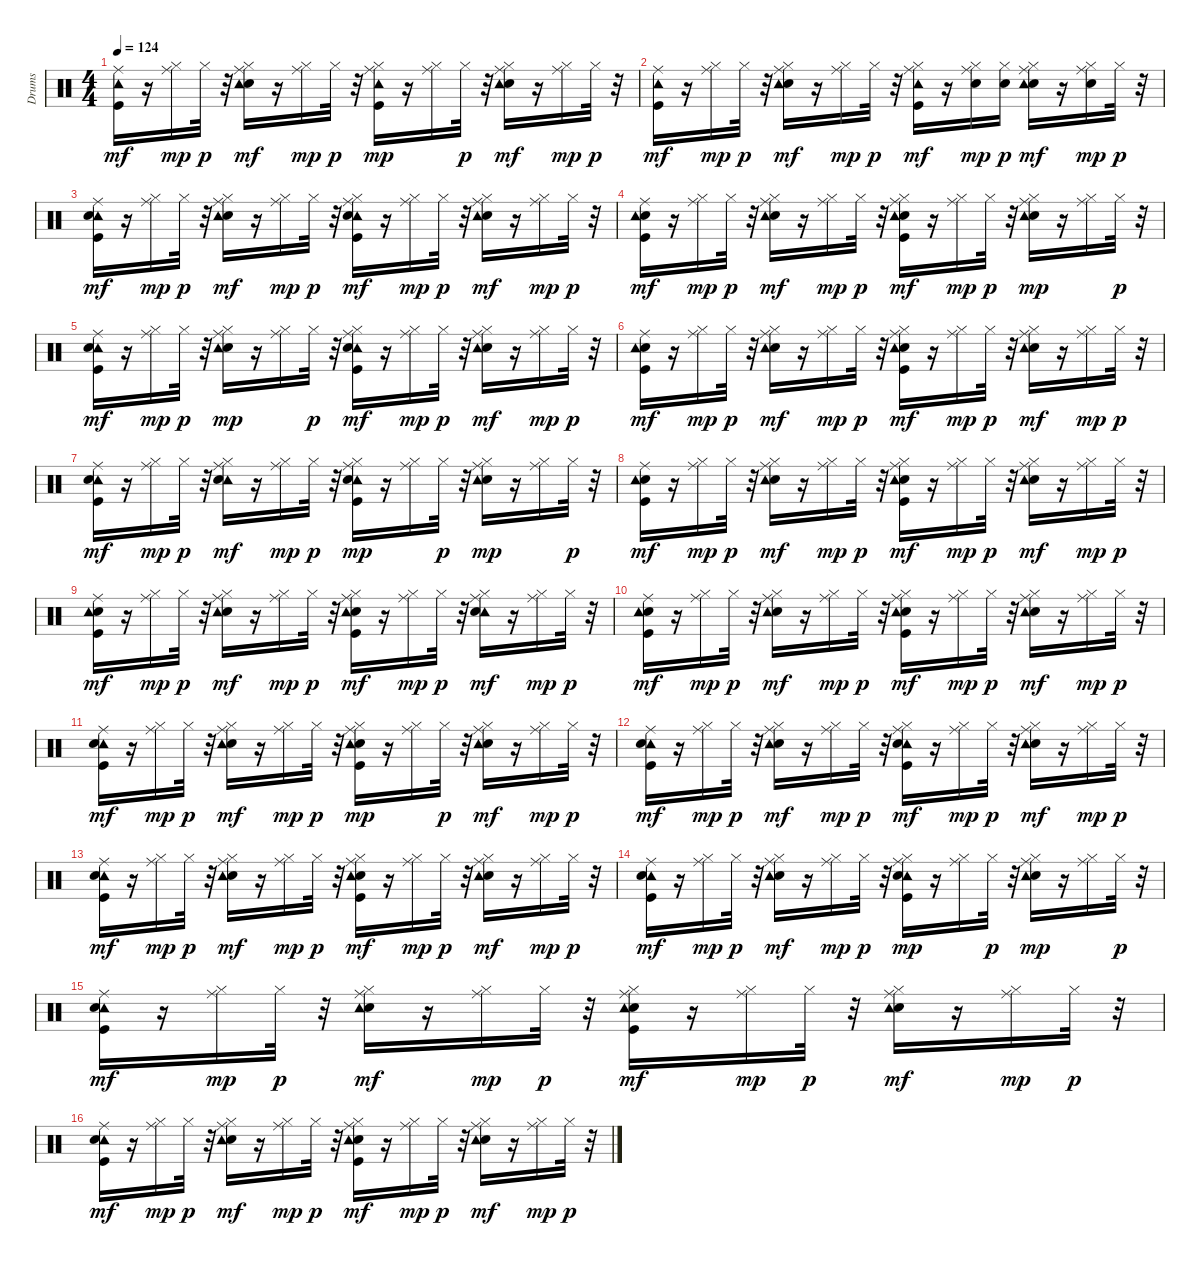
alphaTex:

\track ("Drums" "Drums") {instrument percussion}
\staff {score}
\articulation defaults
\ts (4 4)
\tempo 124
\clef neutral
\ks c
("Ride (middle)" "Tambourine (hit)" "Kick (hit)").16{dy mf} r.16 ("Ride (middle)" "Hi-Hat (closed)").16{dy mp} "Hi-Hat (closed)".32{dy p} r.32 ("Ride (middle)" "Snare (hit) 2" "Tambourine (hit)" "Hi-Hat (closed)").16{dy mf} r.16 ("Hi-Hat (closed)" "Ride (middle)").16{dy mp} "Hi-Hat (closed)".32{dy p} r.32 ("Hi-Hat (closed)" "Kick (hit)" "Tambourine (hit)" "Ride (middle)").16{dy mp} r.16 ("Ride (middle)" "Hi-Hat (closed)").16 "Hi-Hat (closed)".32{dy p} r.32 ("Ride (middle)" "Snare (hit) 2" "Tambourine (hit)" "Hi-Hat (closed)").16{dy mf} r.16 ("Hi-Hat (closed)" "Ride (middle)").16{dy mp} "Hi-Hat (closed)".32{dy p} r.32 |
("Ride (middle)" "Tambourine (hit)" "Kick (hit)").16{dy mf} r.16 ("Ride (middle)" "Hi-Hat (closed)").16{dy mp} "Hi-Hat (closed)".32{dy p} r.32 ("Ride (middle)" "Snare (hit) 2" "Tambourine (hit)" "Hi-Hat (closed)").16{dy mf} r.16 ("Hi-Hat (closed)" "Ride (middle)").16{dy mp} "Hi-Hat (closed)".32{dy p} r.32 ("Ride (middle)" "Kick (hit)" "Tambourine (hit)" "Hi-Hat (closed)").16{dy mf} r.16 ("Electric Snare (hit)" "Ride (middle)" "Hi-Hat (closed)").16{dy mp} ("Electric Snare (hit)" "Hi-Hat (closed)").16{dy p} ("Hi-Hat (closed)" "Ride (middle)" "Snare (hit) 2" "Tambourine (hit)").16{dy mf} r.16 ("Electric Snare (hit)" "Ride (middle)" "Hi-Hat (closed)").16{dy mp} "Hi-Hat (closed)".32{dy p} r.32 |
("Kick (hit)" "Ride (middle)" "Tambourine (hit)" "Snare (hit) 2").16{dy mf} r.16 ("Ride (middle)" "Hi-Hat (closed)").16{dy mp} "Hi-Hat (closed)".32{dy p} r.32 ("Snare (hit) 2" "Ride (middle)" "Tambourine (hit)" "Hi-Hat (closed)").16{dy mf} r.16 ("Ride (middle)" "Hi-Hat (closed)").16{dy mp} "Hi-Hat (closed)".32{dy p} r.32 ("Tambourine (hit)" "Ride (middle)" "Kick (hit)" "Snare (hit) 2" "Hi-Hat (closed)").16{dy mf} r.16 ("Hi-Hat (closed)" "Ride (middle)").16{dy mp} "Hi-Hat (closed)".32{dy p} r.32 ("Ride (middle)" "Snare (hit) 2" "Tambourine (hit)" "Hi-Hat (closed)").16{dy mf} r.16 ("Ride (middle)" "Hi-Hat (closed)").16{dy mp} "Hi-Hat (closed)".32{dy p} r.32 |
("Snare (hit) 2" "Ride (middle)" "Tambourine (hit)" "Kick (hit)").16{dy mf} r.16 ("Hi-Hat (closed)" "Ride (middle)").16{dy mp} "Hi-Hat (closed)".32{dy p} r.32 ("Ride (middle)" "Snare (hit) 2" "Tambourine (hit)" "Hi-Hat (closed)").16{dy mf} r.16 ("Ride (middle)" "Hi-Hat (closed)").16{dy mp} "Hi-Hat (closed)".32{dy p} r.32 ("Snare (hit) 2" "Hi-Hat (closed)" "Ride (middle)" "Kick (hit)" "Tambourine (hit)").16{dy mf} r.16 ("Ride (middle)" "Hi-Hat (closed)").16{dy mp} "Hi-Hat (closed)".32{dy p} r.32 ("Hi-Hat (closed)" "Snare (hit) 2" "Tambourine (hit)" "Ride (middle)").16{dy mp} r.16 ("Ride (middle)" "Hi-Hat (closed)").16 "Hi-Hat (closed)".32{dy p} r.32 |
("Tambourine (hit)" "Snare (hit) 2" "Ride (middle)" "Kick (hit)").16{dy mf} r.16 ("Ride (middle)" "Hi-Hat (closed)").16{dy mp} "Hi-Hat (closed)".32{dy p} r.32 ("Hi-Hat (closed)" "Snare (hit) 2" "Tambourine (hit)" "Ride (middle)").16{dy mp} r.16 ("Ride (middle)" "Hi-Hat (closed)").16 "Hi-Hat (closed)".32{dy p} r.32 ("Ride (middle)" "Hi-Hat (closed)" "Kick (hit)" "Tambourine (hit)" "Snare (hit) 2").16{dy mf} r.16 ("Ride (middle)" "Hi-Hat (closed)").16{dy mp} "Hi-Hat (closed)".32{dy p} r.32 ("Ride (middle)" "Snare (hit) 2" "Tambourine (hit)" "Hi-Hat (closed)").16{dy mf} r.16 ("Hi-Hat (closed)" "Ride (middle)").16{dy mp} "Hi-Hat (closed)".32{dy p} r.32 |
("Snare (hit) 2" "Ride (middle)" "Tambourine (hit)" "Kick (hit)").16{dy mf} r.16 ("Ride (middle)" "Hi-Hat (closed)").16{dy mp} "Hi-Hat (closed)".32{dy p} r.32 ("Ride (middle)" "Snare (hit) 2" "Tambourine (hit)" "Hi-Hat (closed)").16{dy mf} r.16 ("Hi-Hat (closed)" "Ride (middle)").16{dy mp} "Hi-Hat (closed)".32{dy p} r.32 ("Snare (hit) 2" "Ride (middle)" "Kick (hit)" "Tambourine (hit)" "Hi-Hat (closed)").16{dy mf} r.16 ("Ride (middle)" "Hi-Hat (closed)").16{dy mp} "Hi-Hat (closed)".32{dy p} r.32 ("Hi-Hat (closed)" "Ride (middle)" "Snare (hit) 2" "Tambourine (hit)").16{dy mf} r.16 ("Ride (middle)" "Hi-Hat (closed)").16{dy mp} "Hi-Hat (closed)".32{dy p} r.32 |
("Kick (hit)" "Ride (middle)" "Tambourine (hit)" "Snare (hit) 2").16{dy mf} r.16 ("Ride (middle)" "Hi-Hat (closed)").16{dy mp} "Hi-Hat (closed)".32{dy p} r.32 ("Tambourine (hit)" "Ride (middle)" "Snare (hit) 2" "Hi-Hat (closed)").16{dy mf} r.16 ("Ride (middle)" "Hi-Hat (closed)").16{dy mp} "Hi-Hat (closed)".32{dy p} r.32 ("Tambourine (hit)" "Hi-Hat (closed)" "Kick (hit)" "Snare (hit) 2" "Ride (middle)").16{dy mp} r.16 ("Ride (middle)" "Hi-Hat (closed)").16 "Hi-Hat (closed)".32{dy p} r.32 ("Hi-Hat (closed)" "Snare (hit) 2" "Tambourine (hit)" "Ride (middle)").16{dy mp} r.16 ("Ride (middle)" "Hi-Hat (closed)").16 "Hi-Hat (closed)".32{dy p} r.32 |
("Snare (hit) 2" "Ride (middle)" "Tambourine (hit)" "Kick (hit)").16{dy mf volume 16} r.16 ("Ride (middle)" "Hi-Hat (closed)").16{dy mp} "Hi-Hat (closed)".32{dy p} r.32 ("Snare (hit) 2" "Tambourine (hit)" "Ride (middle)" "Hi-Hat (closed)").16{dy mf} r.16 ("Ride (middle)" "Hi-Hat (closed)").16{dy mp} "Hi-Hat (closed)".32{dy p} r.32 ("Snare (hit) 2" "Ride (middle)" "Hi-Hat (closed)" "Kick (hit)" "Tambourine (hit)").16{dy mf} r.16 ("Ride (middle)" "Hi-Hat (closed)").16{dy mp} "Hi-Hat (closed)".32{dy p} r.32 ("Snare (hit) 2" "Tambourine (hit)" "Ride (middle)" "Hi-Hat (closed)").16{dy mf} r.16 ("Ride (middle)" "Hi-Hat (closed)").16{dy mp} "Hi-Hat (closed)".32{dy p} r.32 |
("Snare (hit) 2" "Ride (middle)" "Kick (hit)" "Tambourine (hit)").16{dy mf volume 15} r.16 ("Ride (middle)" "Hi-Hat (closed)").16{dy mp} "Hi-Hat (closed)".32{dy p} r.32 ("Snare (hit) 2" "Ride (middle)" "Tambourine (hit)" "Hi-Hat (closed)").16{dy mf} r.16 ("Ride (middle)" "Hi-Hat (closed)").16{dy mp} "Hi-Hat (closed)".32{dy p} r.32 ("Snare (hit) 2" "Kick (hit)" "Tambourine (hit)" "Ride (middle)" "Hi-Hat (closed)").16{dy mf} r.16 ("Hi-Hat (closed)" "Ride (middle)").16{dy mp} "Hi-Hat (closed)".32{dy p} r.32 ("Tambourine (hit)" "Ride (middle)" "Snare (hit) 2" "Hi-Hat (closed)").16{dy mf} r.16 ("Hi-Hat (closed)" "Ride (middle)").16{dy mp} "Hi-Hat (closed)".32{dy p} r.32 |
("Ride (middle)" "Snare (hit) 2" "Tambourine (hit)" "Kick (hit)").16{dy mf volume 14} r.16 ("Hi-Hat (closed)" "Ride (middle)").16{dy mp} "Hi-Hat (closed)".32{dy p} r.32 ("Ride (middle)" "Snare (hit) 2" "Tambourine (hit)" "Hi-Hat (closed)").16{dy mf} r.16 ("Ride (middle)" "Hi-Hat (closed)").16{dy mp} "Hi-Hat (closed)".32{dy p} r.32 ("Hi-Hat (closed)" "Snare (hit) 2" "Ride (middle)" "Kick (hit)" "Tambourine (hit)").16{dy mf} r.16 ("Ride (middle)" "Hi-Hat (closed)").16{dy mp} "Hi-Hat (closed)".32{dy p} r.32 ("Ride (middle)" "Snare (hit) 2" "Tambourine (hit)" "Hi-Hat (closed)").16{dy mf} r.16 ("Hi-Hat (closed)" "Ride (middle)").16{dy mp} "Hi-Hat (closed)".32{dy p} r.32 |
("Tambourine (hit)" "Snare (hit) 2" "Ride (middle)" "Kick (hit)").16{dy mf volume 13} r.16 ("Ride (middle)" "Hi-Hat (closed)").16{dy mp} "Hi-Hat (closed)".32{dy p} r.32 ("Ride (middle)" "Snare (hit) 2" "Tambourine (hit)" "Hi-Hat (closed)").16{dy mf} r.16 ("Ride (middle)" "Hi-Hat (closed)").16{dy mp} "Hi-Hat (closed)".32{dy p} r.32 ("Snare (hit) 2" "Kick (hit)" "Tambourine (hit)" "Hi-Hat (closed)" "Ride (middle)").16{dy mp} r.16 ("Hi-Hat (closed)" "Ride (middle)").16 "Hi-Hat (closed)".32{dy p} r.32 ("Ride (middle)" "Snare (hit) 2" "Tambourine (hit)" "Hi-Hat (closed)").16{dy mf} r.16 ("Ride (middle)" "Hi-Hat (closed)").16{dy mp} "Hi-Hat (closed)".32{dy p} r.32 |
("Ride (middle)" "Tambourine (hit)" "Kick (hit)" "Snare (hit) 2").16{dy mf volume 11} r.16 ("Hi-Hat (closed)" "Ride (middle)").16{dy mp} "Hi-Hat (closed)".32{dy p} r.32 ("Ride (middle)" "Snare (hit) 2" "Hi-Hat (closed)" "Tambourine (hit)").16{dy mf} r.16 ("Ride (middle)" "Hi-Hat (closed)").16{dy mp} "Hi-Hat (closed)".32{dy p} r.32 ("Ride (middle)" "Tambourine (hit)" "Hi-Hat (closed)" "Kick (hit)" "Snare (hit) 2").16{dy mf} r.16 ("Hi-Hat (closed)" "Ride (middle)").16{dy mp} "Hi-Hat (closed)".32{dy p} r.32 ("Snare (hit) 2" "Tambourine (hit)" "Ride (middle)" "Hi-Hat (closed)").16{dy mf} r.16 ("Hi-Hat (closed)" "Ride (middle)").16{dy mp} "Hi-Hat (closed)".32{dy p} r.32 |
("Tambourine (hit)" "Snare (hit) 2" "Ride (middle)" "Kick (hit)").16{dy mf volume 10} r.16 ("Hi-Hat (closed)" "Ride (middle)").16{dy mp} "Hi-Hat (closed)".32{dy p} r.32 ("Snare (hit) 2" "Ride (middle)" "Tambourine (hit)" "Hi-Hat (closed)").16{dy mf} r.16 ("Hi-Hat (closed)" "Ride (middle)").16{dy mp} "Hi-Hat (closed)".32{dy p} r.32 ("Snare (hit) 2" "Ride (middle)" "Hi-Hat (closed)" "Kick (hit)" "Tambourine (hit)").16{dy mf} r.16 ("Ride (middle)" "Hi-Hat (closed)").16{dy mp} "Hi-Hat (closed)".32{dy p} r.32 ("Hi-Hat (closed)" "Ride (middle)" "Snare (hit) 2" "Tambourine (hit)").16{dy mf} r.16 ("Ride (middle)" "Hi-Hat (closed)").16{dy mp} "Hi-Hat (closed)".32{dy p} r.32 |
("Kick (hit)" "Ride (middle)" "Tambourine (hit)" "Snare (hit) 2").16{dy mf volume 9} r.16 ("Ride (middle)" "Hi-Hat (closed)").16{dy mp} "Hi-Hat (closed)".32{dy p} r.32 ("Ride (middle)" "Snare (hit) 2" "Hi-Hat (closed)" "Tambourine (hit)").16{dy mf} r.16 ("Ride (middle)" "Hi-Hat (closed)").16{dy mp} "Hi-Hat (closed)".32{dy p} r.32 ("Tambourine (hit)" "Hi-Hat (closed)" "Kick (hit)" "Snare (hit) 2" "Ride (middle)").16{dy mp} r.16 ("Ride (middle)" "Hi-Hat (closed)").16 "Hi-Hat (closed)".32{dy p} r.32 ("Snare (hit) 2" "Tambourine (hit)" "Hi-Hat (closed)" "Ride (middle)").16{dy mp} r.16 ("Ride (middle)" "Hi-Hat (closed)").16 "Hi-Hat (closed)".32{dy p} r.32 |
("Ride (middle)" "Tambourine (hit)" "Snare (hit) 2" "Kick (hit)").16{dy mf volume 8} r.16 ("Ride (middle)" "Hi-Hat (closed)").16{dy mp} "Hi-Hat (closed)".32{dy p} r.32 ("Snare (hit) 2" "Tambourine (hit)" "Ride (middle)" "Hi-Hat (closed)").16{dy mf} r.16 ("Ride (middle)" "Hi-Hat (closed)").16{dy mp} "Hi-Hat (closed)".32{dy p} r.32 ("Snare (hit) 2" "Ride (middle)" "Tambourine (hit)" "Hi-Hat (closed)" "Kick (hit)").16{dy mf} r.16 ("Hi-Hat (closed)" "Ride (middle)").16{dy mp} "Hi-Hat (closed)".32{dy p} r.32 ("Ride (middle)" "Snare (hit) 2" "Tambourine (hit)" "Hi-Hat (closed)").16{dy mf} r.16 ("Ride (middle)" "Hi-Hat (closed)").16{dy mp} "Hi-Hat (closed)".32{dy p} r.32 |
("Ride (middle)" "Tambourine (hit)" "Snare (hit) 2" "Kick (hit)").16{dy mf volume 6} r.16 ("Hi-Hat (closed)" "Ride (middle)").16{dy mp} "Hi-Hat (closed)".32{dy p} r.32 ("Ride (middle)" "Hi-Hat (closed)" "Snare (hit) 2" "Tambourine (hit)").16{dy mf} r.16 ("Ride (middle)" "Hi-Hat (closed)").16{dy mp} "Hi-Hat (closed)".32{dy p} r.32 ("Kick (hit)" "Snare (hit) 2" "Ride (middle)" "Tambourine (hit)" "Hi-Hat (closed)").16{dy mf} r.16 ("Hi-Hat (closed)" "Ride (middle)").16{dy mp} "Hi-Hat (closed)".32{dy p} r.32 ("Snare (hit) 2" "Ride (middle)" "Tambourine (hit)" "Hi-Hat (closed)").16{dy mf} r.16 ("Ride (middle)" "Hi-Hat (closed)").16{dy mp} "Hi-Hat (closed)".32{dy p} r.32
